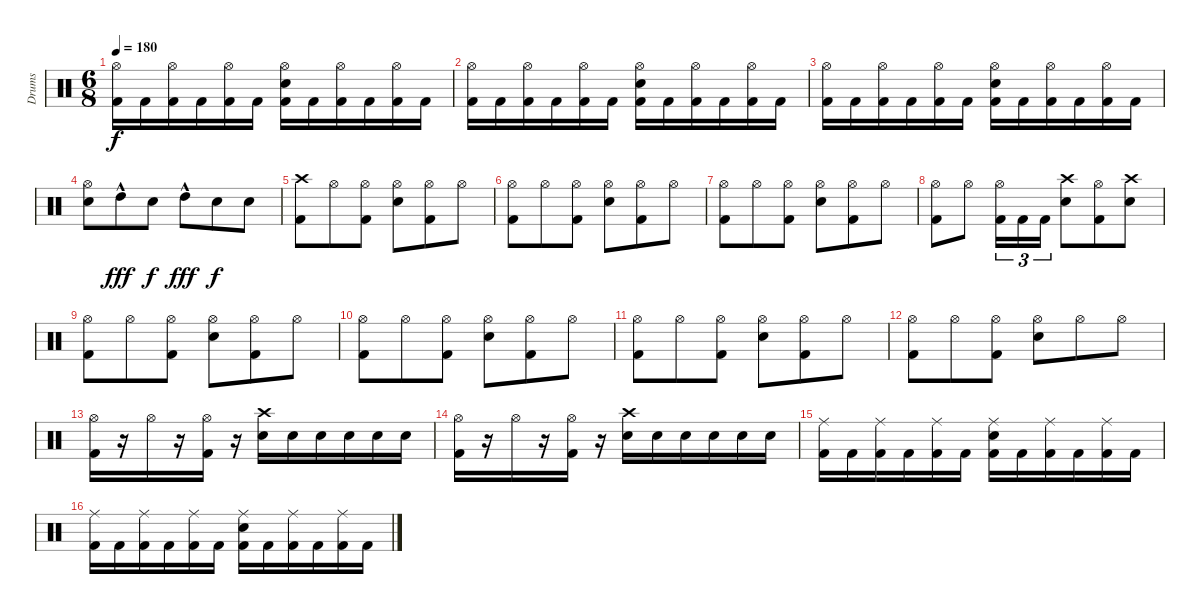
\track ("Drums" "Drums") {instrument percussion}
\staff {score}
\articulation defaults
\ts (6 8)
\tempo 180
\clef neutral
\ks c
("Kick (hit) 2" "Hi-Hat (open)").16{dy f} "Kick (hit) 2".16 ("Kick (hit) 2" "Hi-Hat (open)").16 "Kick (hit) 2".16 ("Kick (hit) 2" "Hi-Hat (open)").16 "Kick (hit) 2".16 ("Kick (hit) 2" "Electric Snare (hit)" "Hi-Hat (open)").16 "Kick (hit) 2".16 ("Kick (hit) 2" "Hi-Hat (open)").16 "Kick (hit) 2".16 ("Kick (hit) 2" "Hi-Hat (open)").16 "Kick (hit) 2".16 |
("Kick (hit) 2" "Hi-Hat (open)").16 "Kick (hit) 2".16 ("Kick (hit) 2" "Hi-Hat (open)").16 "Kick (hit) 2".16 ("Kick (hit) 2" "Hi-Hat (open)").16 "Kick (hit) 2".16 ("Kick (hit) 2" "Electric Snare (hit)" "Hi-Hat (open)").16 "Kick (hit) 2".16 ("Kick (hit) 2" "Hi-Hat (open)").16 "Kick (hit) 2".16 ("Kick (hit) 2" "Hi-Hat (open)").16 "Kick (hit) 2".16 |
("Kick (hit) 2" "Hi-Hat (open)").16 "Kick (hit) 2".16 ("Kick (hit) 2" "Hi-Hat (open)").16 "Kick (hit) 2".16 ("Kick (hit) 2" "Hi-Hat (open)").16 "Kick (hit) 2".16 ("Kick (hit) 2" "Electric Snare (hit)" "Hi-Hat (open)").16 "Kick (hit) 2".16 ("Kick (hit) 2" "Hi-Hat (open)").16 "Kick (hit) 2".16 ("Kick (hit) 2" "Hi-Hat (open)").16 "Kick (hit) 2".16 |
("Electric Snare (hit)" "Hi-Hat (open)").8 "High Tom (hit)"{hac}.8{dy fff} "Electric Snare (hit)".8{dy f} "High Tom (hit)"{hac}.8{dy fff} "Electric Snare (hit)".8{dy f} "Electric Snare (hit)".8 |
("Kick (hit) 2" "Crash high (hit)").8 "Hi-Hat (open)".8 ("Kick (hit) 2" "Hi-Hat (open)").8 ("Electric Snare (hit)" "Hi-Hat (open)").8 ("Kick (hit) 2" "Hi-Hat (open)").8 "Hi-Hat (open)".8 |
("Kick (hit) 2" "Hi-Hat (open)").8 "Hi-Hat (open)".8 ("Kick (hit) 2" "Hi-Hat (open)").8 ("Electric Snare (hit)" "Hi-Hat (open)").8 ("Kick (hit) 2" "Hi-Hat (open)").8 "Hi-Hat (open)".8 |
("Kick (hit) 2" "Hi-Hat (open)").8 "Hi-Hat (open)".8 ("Kick (hit) 2" "Hi-Hat (open)").8 ("Electric Snare (hit)" "Hi-Hat (open)").8 ("Kick (hit) 2" "Hi-Hat (open)").8 "Hi-Hat (open)".8 |
("Kick (hit) 2" "Hi-Hat (open)").8 "Hi-Hat (open)".8 ("Kick (hit) 2" "Hi-Hat (open)").16{tu (3 2)} "Kick (hit) 2".16{tu (3 2)} "Kick (hit) 2".16{tu (3 2)} ("Electric Snare (hit)" "Crash high (hit)").8 ("Kick (hit) 2" "Hi-Hat (open)").8 ("Electric Snare (hit)" "Crash high (hit)").8 |
("Kick (hit) 2" "Hi-Hat (open)").8 "Hi-Hat (open)".8 ("Kick (hit) 2" "Hi-Hat (open)").8 ("Electric Snare (hit)" "Hi-Hat (open)").8 ("Kick (hit) 2" "Hi-Hat (open)").8 "Hi-Hat (open)".8 |
("Kick (hit) 2" "Hi-Hat (open)").8 "Hi-Hat (open)".8 ("Kick (hit) 2" "Hi-Hat (open)").8 ("Electric Snare (hit)" "Hi-Hat (open)").8 ("Kick (hit) 2" "Hi-Hat (open)").8 "Hi-Hat (open)".8 |
("Kick (hit) 2" "Hi-Hat (open)").8 "Hi-Hat (open)".8 ("Kick (hit) 2" "Hi-Hat (open)").8 ("Electric Snare (hit)" "Hi-Hat (open)").8 ("Kick (hit) 2" "Hi-Hat (open)").8 "Hi-Hat (open)".8 |
("Kick (hit) 2" "Hi-Hat (open)").8 "Hi-Hat (open)".8 ("Kick (hit) 2" "Hi-Hat (open)").8 ("Electric Snare (hit)" "Hi-Hat (open)").8 "Hi-Hat (open)".8 "Hi-Hat (open)".8 |
("Kick (hit) 2" "Hi-Hat (open)").16 r.16 "Hi-Hat (open)".16 r.16 ("Kick (hit) 2" "Hi-Hat (open)").16 r.16 ("Electric Snare (hit)" "Crash high (hit)").16 "Electric Snare (hit)".16 "Electric Snare (hit)".16 "Electric Snare (hit)".16 "Electric Snare (hit)".16 "Electric Snare (hit)".16 |
("Kick (hit) 2" "Hi-Hat (open)").16 r.16 "Hi-Hat (open)".16 r.16 ("Kick (hit) 2" "Hi-Hat (open)").16 r.16 ("Electric Snare (hit)" "Crash high (hit)").16 "Electric Snare (hit)".16 "Electric Snare (hit)".16 "Electric Snare (hit)".16 "Electric Snare (hit)".16 "Electric Snare (hit)".16 |
("Kick (hit) 2" "Ride (middle)").16 "Kick (hit) 2".16 ("Kick (hit) 2" "Ride (middle)").16 "Kick (hit) 2".16 ("Kick (hit) 2" "Ride (middle)").16 "Kick (hit) 2".16 ("Kick (hit) 2" "Electric Snare (hit)" "Ride (middle)").16 "Kick (hit) 2".16 ("Kick (hit) 2" "Ride (middle)").16 "Kick (hit) 2".16 ("Kick (hit) 2" "Ride (middle)").16 "Kick (hit) 2".16 |
("Kick (hit) 2" "Ride (middle)").16 "Kick (hit) 2".16 ("Kick (hit) 2" "Ride (middle)").16 "Kick (hit) 2".16 ("Kick (hit) 2" "Ride (middle)").16 "Kick (hit) 2".16 ("Kick (hit) 2" "Electric Snare (hit)" "Ride (middle)").16 "Kick (hit) 2".16 ("Kick (hit) 2" "Ride (middle)").16 "Kick (hit) 2".16 ("Kick (hit) 2" "Ride (middle)").16 "Kick (hit) 2".16
